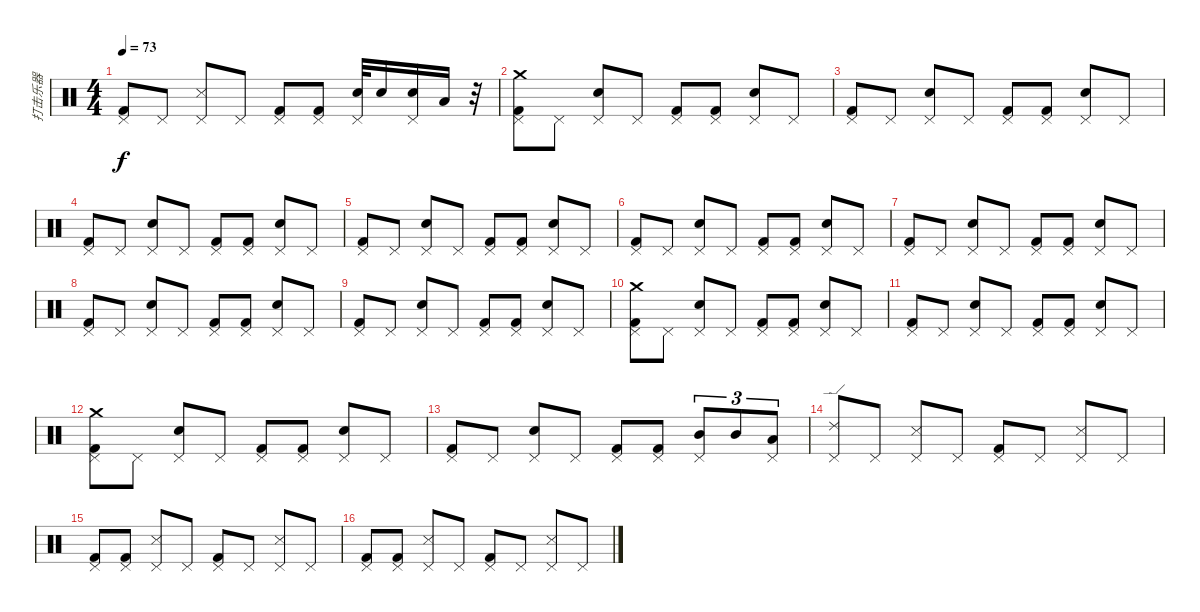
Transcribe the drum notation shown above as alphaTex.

\track ("打击乐器" "打击乐器") {instrument percussion}
\staff {score}
\articulation defaults
\ts (4 4)
\tempo 73
\clef neutral
\ks c
("Kick (hit) 2" "Pedal Hi-Hat (hit)").8{dy f} "Pedal Hi-Hat (hit)".8 ("Snare (side stick) 3" "Pedal Hi-Hat (hit)").8 "Pedal Hi-Hat (hit)".8 ("Kick (hit) 2" "Pedal Hi-Hat (hit)").8 ("Kick (hit) 2" "Pedal Hi-Hat (hit)").8 ("Electric Snare (hit)" "Pedal Hi-Hat (hit)").32 "Electric Snare (hit)".16 ("Electric Snare (hit)" "Pedal Hi-Hat (hit)").16 "Low Floor Tom (hit)".16 r.32 |
("Crash medium (hit)" "Kick (hit) 2" "Pedal Hi-Hat (hit)").8 "Pedal Hi-Hat (hit)".8 ("Electric Snare (hit)" "Pedal Hi-Hat (hit)").8 "Pedal Hi-Hat (hit)".8 ("Kick (hit) 2" "Pedal Hi-Hat (hit)").8 ("Kick (hit) 2" "Pedal Hi-Hat (hit)").8 ("Electric Snare (hit)" "Pedal Hi-Hat (hit)").8 "Pedal Hi-Hat (hit)".8 |
("Kick (hit) 2" "Pedal Hi-Hat (hit)").8 "Pedal Hi-Hat (hit)".8 ("Electric Snare (hit)" "Pedal Hi-Hat (hit)").8 "Pedal Hi-Hat (hit)".8 ("Kick (hit) 2" "Pedal Hi-Hat (hit)").8 ("Kick (hit) 2" "Pedal Hi-Hat (hit)").8 ("Electric Snare (hit)" "Pedal Hi-Hat (hit)").8 "Pedal Hi-Hat (hit)".8 |
("Kick (hit) 2" "Pedal Hi-Hat (hit)").8 "Pedal Hi-Hat (hit)".8 ("Electric Snare (hit)" "Pedal Hi-Hat (hit)").8 "Pedal Hi-Hat (hit)".8 ("Kick (hit) 2" "Pedal Hi-Hat (hit)").8 ("Kick (hit) 2" "Pedal Hi-Hat (hit)").8 ("Electric Snare (hit)" "Pedal Hi-Hat (hit)").8 "Pedal Hi-Hat (hit)".8 |
("Kick (hit) 2" "Pedal Hi-Hat (hit)").8 "Pedal Hi-Hat (hit)".8 ("Electric Snare (hit)" "Pedal Hi-Hat (hit)").8 "Pedal Hi-Hat (hit)".8 ("Kick (hit) 2" "Pedal Hi-Hat (hit)").8 ("Kick (hit) 2" "Pedal Hi-Hat (hit)").8 ("Electric Snare (hit)" "Pedal Hi-Hat (hit)").8 "Pedal Hi-Hat (hit)".8 |
("Kick (hit) 2" "Pedal Hi-Hat (hit)").8 "Pedal Hi-Hat (hit)".8 ("Electric Snare (hit)" "Pedal Hi-Hat (hit)").8 "Pedal Hi-Hat (hit)".8 ("Kick (hit) 2" "Pedal Hi-Hat (hit)").8 ("Kick (hit) 2" "Pedal Hi-Hat (hit)").8 ("Electric Snare (hit)" "Pedal Hi-Hat (hit)").8 "Pedal Hi-Hat (hit)".8 |
("Kick (hit) 2" "Pedal Hi-Hat (hit)").8 "Pedal Hi-Hat (hit)".8 ("Electric Snare (hit)" "Pedal Hi-Hat (hit)").8 "Pedal Hi-Hat (hit)".8 ("Kick (hit) 2" "Pedal Hi-Hat (hit)").8 ("Kick (hit) 2" "Pedal Hi-Hat (hit)").8 ("Electric Snare (hit)" "Pedal Hi-Hat (hit)").8 "Pedal Hi-Hat (hit)".8 |
("Kick (hit) 2" "Pedal Hi-Hat (hit)").8 "Pedal Hi-Hat (hit)".8 ("Electric Snare (hit)" "Pedal Hi-Hat (hit)").8 "Pedal Hi-Hat (hit)".8 ("Kick (hit) 2" "Pedal Hi-Hat (hit)").8 ("Kick (hit) 2" "Pedal Hi-Hat (hit)").8 ("Electric Snare (hit)" "Pedal Hi-Hat (hit)").8 "Pedal Hi-Hat (hit)".8 |
("Kick (hit) 2" "Pedal Hi-Hat (hit)").8 "Pedal Hi-Hat (hit)".8 ("Electric Snare (hit)" "Pedal Hi-Hat (hit)").8 "Pedal Hi-Hat (hit)".8 ("Kick (hit) 2" "Pedal Hi-Hat (hit)").8 ("Kick (hit) 2" "Pedal Hi-Hat (hit)").8 ("Electric Snare (hit)" "Pedal Hi-Hat (hit)").8 "Pedal Hi-Hat (hit)".8 |
("Crash medium (hit)" "Kick (hit) 2" "Pedal Hi-Hat (hit)").8 "Pedal Hi-Hat (hit)".8 ("Electric Snare (hit)" "Pedal Hi-Hat (hit)").8 "Pedal Hi-Hat (hit)".8 ("Kick (hit) 2" "Pedal Hi-Hat (hit)").8 ("Kick (hit) 2" "Pedal Hi-Hat (hit)").8 ("Electric Snare (hit)" "Pedal Hi-Hat (hit)").8 "Pedal Hi-Hat (hit)".8 |
("Kick (hit) 2" "Pedal Hi-Hat (hit)").8 "Pedal Hi-Hat (hit)".8 ("Electric Snare (hit)" "Pedal Hi-Hat (hit)").8 "Pedal Hi-Hat (hit)".8 ("Kick (hit) 2" "Pedal Hi-Hat (hit)").8 ("Kick (hit) 2" "Pedal Hi-Hat (hit)").8 ("Electric Snare (hit)" "Pedal Hi-Hat (hit)").8 "Pedal Hi-Hat (hit)".8 |
("Crash medium (hit)" "Kick (hit) 2" "Pedal Hi-Hat (hit)").8 "Pedal Hi-Hat (hit)".8 ("Electric Snare (hit)" "Pedal Hi-Hat (hit)").8 "Pedal Hi-Hat (hit)".8 ("Kick (hit) 2" "Pedal Hi-Hat (hit)").8 ("Kick (hit) 2" "Pedal Hi-Hat (hit)").8 ("Electric Snare (hit)" "Pedal Hi-Hat (hit)").8 "Pedal Hi-Hat (hit)".8 |
("Kick (hit) 2" "Pedal Hi-Hat (hit)").8 "Pedal Hi-Hat (hit)".8 ("Electric Snare (hit)" "Pedal Hi-Hat (hit)").8 "Pedal Hi-Hat (hit)".8 ("Kick (hit) 2" "Pedal Hi-Hat (hit)").8 ("Kick (hit) 2" "Pedal Hi-Hat (hit)").8 ("Mid Tom (hit)" "Pedal Hi-Hat (hit)").8{tu (3 2)} "Mid Tom (hit)".8{tu (3 2)} ("Low Tom (hit)" "Pedal Hi-Hat (hit)").8{tu (3 2)} |
("Ride (edge) 2" "Pedal Hi-Hat (hit)").8 "Pedal Hi-Hat (hit)".8 ("Snare (side stick) 3" "Pedal Hi-Hat (hit)").8 "Pedal Hi-Hat (hit)".8 ("Kick (hit) 2" "Pedal Hi-Hat (hit)").8 "Pedal Hi-Hat (hit)".8 ("Snare (side stick) 3" "Pedal Hi-Hat (hit)").8 "Pedal Hi-Hat (hit)".8 |
("Kick (hit) 2" "Pedal Hi-Hat (hit)").8 ("Kick (hit) 2" "Pedal Hi-Hat (hit)").8 ("Snare (side stick) 3" "Pedal Hi-Hat (hit)").8 "Pedal Hi-Hat (hit)".8 ("Kick (hit) 2" "Pedal Hi-Hat (hit)").8 "Pedal Hi-Hat (hit)".8 ("Snare (side stick) 3" "Pedal Hi-Hat (hit)").8 "Pedal Hi-Hat (hit)".8 |
("Kick (hit) 2" "Pedal Hi-Hat (hit)").8 ("Kick (hit) 2" "Pedal Hi-Hat (hit)").8 ("Snare (side stick) 3" "Pedal Hi-Hat (hit)").8 "Pedal Hi-Hat (hit)".8 ("Kick (hit) 2" "Pedal Hi-Hat (hit)").8 "Pedal Hi-Hat (hit)".8 ("Snare (side stick) 3" "Pedal Hi-Hat (hit)").8 "Pedal Hi-Hat (hit)".8
